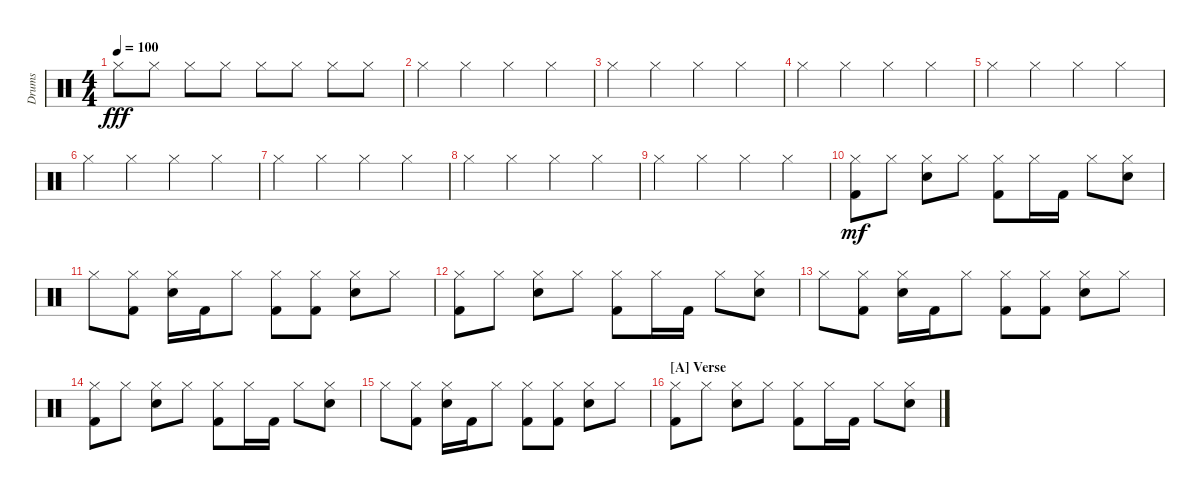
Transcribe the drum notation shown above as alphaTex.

\defaultSystemsLayout 4
\bracketExtendMode groupsimilarinstruments
\otherSystemsTrackNameOrientation horizontal
\track ("Prakarsh" "Drums") {instrument percussion}
\staff {score}
\articulation defaults
\ts (4 4)
\tempo 100
\clef neutral
\ks c "Hi-Hat (closed)".8{dy fff beam Down} "Hi-Hat (closed)".8{beam Down} "Hi-Hat (closed)".8{beam Down} "Hi-Hat (closed)".8{beam Down} "Hi-Hat (closed)".8{beam Down} "Hi-Hat (closed)".8{beam Down} "Hi-Hat (closed)".8{beam Down} "Hi-Hat (closed)".8{beam Down}
|
"Hi-Hat (closed)".4{beam Down} "Hi-Hat (closed)".4{beam Down} "Hi-Hat (closed)".4{beam Down} "Hi-Hat (closed)".4{beam Down} |
"Hi-Hat (closed)".4{beam Down} "Hi-Hat (closed)".4{beam Down} "Hi-Hat (closed)".4{beam Down} "Hi-Hat (closed)".4{beam Down} |
"Hi-Hat (closed)".4{beam Down} "Hi-Hat (closed)".4{beam Down} "Hi-Hat (closed)".4{beam Down} "Hi-Hat (closed)".4{beam Down} |
"Hi-Hat (closed)".4{beam Down} "Hi-Hat (closed)".4{beam Down} "Hi-Hat (closed)".4{beam Down} "Hi-Hat (closed)".4{beam Down} |
"Hi-Hat (closed)".4{beam Down} "Hi-Hat (closed)".4{beam Down} "Hi-Hat (closed)".4{beam Down} "Hi-Hat (closed)".4{beam Down} |
"Hi-Hat (closed)".4{beam Down} "Hi-Hat (closed)".4{beam Down} "Hi-Hat (closed)".4{beam Down} "Hi-Hat (closed)".4{beam Down} |
"Hi-Hat (closed)".4{beam Down} "Hi-Hat (closed)".4{beam Down} "Hi-Hat (closed)".4{beam Down} "Hi-Hat (closed)".4{beam Down} |
"Hi-Hat (closed)".4{beam Down} "Hi-Hat (closed)".4{beam Down} "Hi-Hat (closed)".4{beam Down} "Hi-Hat (closed)".4{beam Down} |
("Hi-Hat (closed)" "Kick (hit) 2").8{dy mf beam Down} "Hi-Hat (closed)".8{beam Down} ("Hi-Hat (closed)" "Snare (hit) 2").8{beam Down} "Hi-Hat (closed)".8{beam Down} ("Hi-Hat (closed)" "Kick (hit) 2").8{beam Down} "Hi-Hat (closed)".16{beam Down} "Kick (hit) 2".16{beam Down} "Hi-Hat (closed)".8{beam Down} ("Hi-Hat (closed)" "Snare (hit) 2").8{beam Down} |
"Hi-Hat (closed)".8{beam Down} ("Hi-Hat (closed)" "Kick (hit) 2").8{beam Down} ("Hi-Hat (closed)" "Snare (hit) 2").16{beam Down} "Kick (hit) 2".16{beam Down} "Hi-Hat (closed)".8{beam Down} ("Hi-Hat (closed)" "Kick (hit) 2").8{beam Down} ("Hi-Hat (closed)" "Kick (hit) 2").8{beam Down} ("Hi-Hat (closed)" "Snare (hit) 2").8{beam Down} "Hi-Hat (closed)".8{beam Down} |
("Hi-Hat (closed)" "Kick (hit) 2").8{beam Down} "Hi-Hat (closed)".8{beam Down} ("Hi-Hat (closed)" "Snare (hit) 2").8{beam Down} "Hi-Hat (closed)".8{beam Down} ("Hi-Hat (closed)" "Kick (hit) 2").8{beam Down} "Hi-Hat (closed)".16{beam Down} "Kick (hit) 2".16{beam Down} "Hi-Hat (closed)".8{beam Down} ("Hi-Hat (closed)" "Snare (hit) 2").8{beam Down} |
"Hi-Hat (closed)".8{beam Down} ("Hi-Hat (closed)" "Kick (hit) 2").8{beam Down} ("Hi-Hat (closed)" "Snare (hit) 2").16{beam Down} "Kick (hit) 2".16{beam Down} "Hi-Hat (closed)".8{beam Down} ("Hi-Hat (closed)" "Kick (hit) 2").8{beam Down} ("Hi-Hat (closed)" "Kick (hit) 2").8{beam Down} ("Hi-Hat (closed)" "Snare (hit) 2").8{beam Down} "Hi-Hat (closed)".8{beam Down} |
("Hi-Hat (closed)" "Kick (hit) 2").8{beam Down} "Hi-Hat (closed)".8{beam Down} ("Hi-Hat (closed)" "Snare (hit) 2").8{beam Down} "Hi-Hat (closed)".8{beam Down} ("Hi-Hat (closed)" "Kick (hit) 2").8{beam Down} "Hi-Hat (closed)".16{beam Down} "Kick (hit) 2".16{beam Down} "Hi-Hat (closed)".8{beam Down} ("Hi-Hat (closed)" "Snare (hit) 2").8{beam Down} |
"Hi-Hat (closed)".8{beam Down} ("Hi-Hat (closed)" "Kick (hit) 2").8{beam Down} ("Hi-Hat (closed)" "Snare (hit) 2").16{beam Down} "Kick (hit) 2".16{beam Down} "Hi-Hat (closed)".8{beam Down} ("Hi-Hat (closed)" "Kick (hit) 2").8{beam Down} ("Hi-Hat (closed)" "Kick (hit) 2").8{beam Down} ("Hi-Hat (closed)" "Snare (hit) 2").8{beam Down} "Hi-Hat (closed)".8{beam Down} |
\section ("A" "Verse")
("Hi-Hat (closed)" "Kick (hit) 2").8{beam Down} "Hi-Hat (closed)".8{beam Down} ("Hi-Hat (closed)" "Snare (hit) 2").8{beam Down} "Hi-Hat (closed)".8{beam Down} ("Hi-Hat (closed)" "Kick (hit) 2").8{beam Down} "Hi-Hat (closed)".16{beam Down} "Kick (hit) 2".16{beam Down} "Hi-Hat (closed)".8{beam Down} ("Hi-Hat (closed)" "Snare (hit) 2").8{beam Down}
